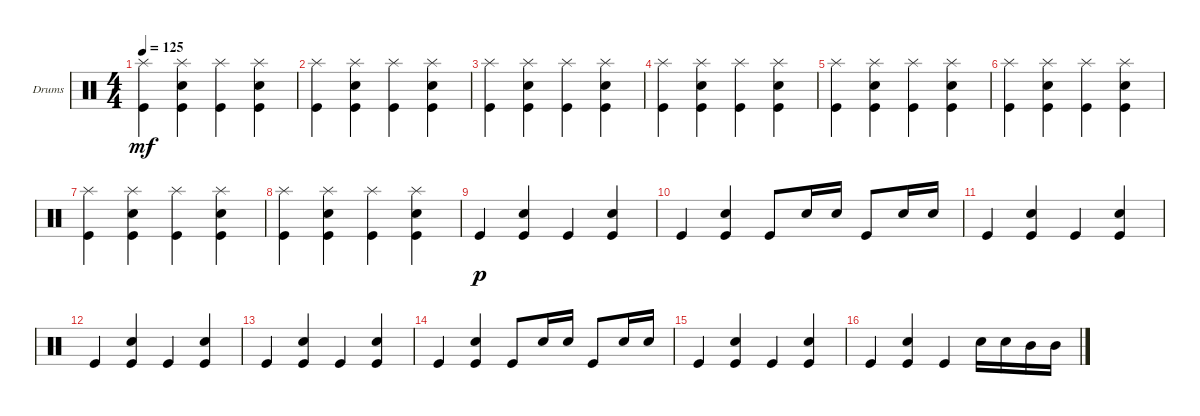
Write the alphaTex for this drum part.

\bracketExtendMode groupsimilarinstruments
\firstSystemTrackNameOrientation horizontal
\otherSystemsTrackNameOrientation horizontal
\track ("Drumkit" "Drums") {instrument percussion}
\staff {score}
\articulation defaults
\ts (4 4)
\tempo 125
\clef neutral
\ks c
("Splash (hit)" "Kick (hit)").4{dy mf} ("Splash (hit)" "Kick (hit)" "Snare (hit) 2").4 ("Splash (hit)" "Kick (hit)").4 ("Splash (hit)" "Kick (hit)" "Snare (hit) 2").4 |
("Splash (hit)" "Kick (hit)").4 ("Splash (hit)" "Kick (hit)" "Snare (hit) 2").4 ("Splash (hit)" "Kick (hit)").4 ("Splash (hit)" "Kick (hit)" "Snare (hit) 2").4 |
("Splash (hit)" "Kick (hit)").4 ("Splash (hit)" "Kick (hit)" "Snare (hit) 2").4 ("Splash (hit)" "Kick (hit)").4 ("Splash (hit)" "Kick (hit)" "Snare (hit) 2").4 |
("Splash (hit)" "Kick (hit)").4 ("Splash (hit)" "Kick (hit)" "Snare (hit) 2").4 ("Splash (hit)" "Kick (hit)").4 ("Splash (hit)" "Kick (hit)" "Snare (hit) 2").4 |
("Splash (hit)" "Kick (hit)").4 ("Splash (hit)" "Kick (hit)" "Snare (hit) 2").4 ("Splash (hit)" "Kick (hit)").4 ("Splash (hit)" "Kick (hit)" "Snare (hit) 2").4 |
("Splash (hit)" "Kick (hit)").4 ("Splash (hit)" "Kick (hit)" "Snare (hit) 2").4 ("Splash (hit)" "Kick (hit)").4 ("Splash (hit)" "Kick (hit)" "Snare (hit) 2").4 |
("Splash (hit)" "Kick (hit)").4 ("Splash (hit)" "Kick (hit)" "Snare (hit) 2").4 ("Splash (hit)" "Kick (hit)").4 ("Splash (hit)" "Kick (hit)" "Snare (hit) 2").4 |
("Splash (hit)" "Kick (hit)").4 ("Splash (hit)" "Kick (hit)" "Snare (hit) 2").4 ("Splash (hit)" "Kick (hit)").4 ("Splash (hit)" "Kick (hit)" "Snare (hit) 2").4 |
"Kick (hit)".4{dy p} ("Snare (hit) 2" "Kick (hit)").4 "Kick (hit)".4 ("Snare (hit) 2" "Kick (hit)").4 |
"Kick (hit)".4 ("Snare (hit) 2" "Kick (hit)").4 "Kick (hit)".8 "Snare (hit) 2".16 "Snare (hit) 2".16 "Kick (hit)".8 "Snare (hit) 2".16 "Snare (hit) 2".16 |
"Kick (hit)".4 ("Snare (hit) 2" "Kick (hit)").4 "Kick (hit)".4 ("Snare (hit) 2" "Kick (hit)").4 |
"Kick (hit)".4 ("Snare (hit) 2" "Kick (hit)").4 "Kick (hit)".4 ("Snare (hit) 2" "Kick (hit)").4 |
"Kick (hit)".4 ("Snare (hit) 2" "Kick (hit)").4 "Kick (hit)".4 ("Snare (hit) 2" "Kick (hit)").4 |
"Kick (hit)".4 ("Snare (hit) 2" "Kick (hit)").4 "Kick (hit)".8 "Snare (hit) 2".16 "Snare (hit) 2".16 "Kick (hit)".8 "Snare (hit) 2".16 "Snare (hit) 2".16 |
"Kick (hit)".4 ("Snare (hit) 2" "Kick (hit)").4 "Kick (hit)".4 ("Snare (hit) 2" "Kick (hit)").4 |
"Kick (hit)".4 ("Snare (hit) 2" "Kick (hit)").4 "Kick (hit)".4 "Snare (hit) 2".16 "Snare (hit) 2".16 "Mid Tom (hit)".16 "Mid Tom (hit)".16
